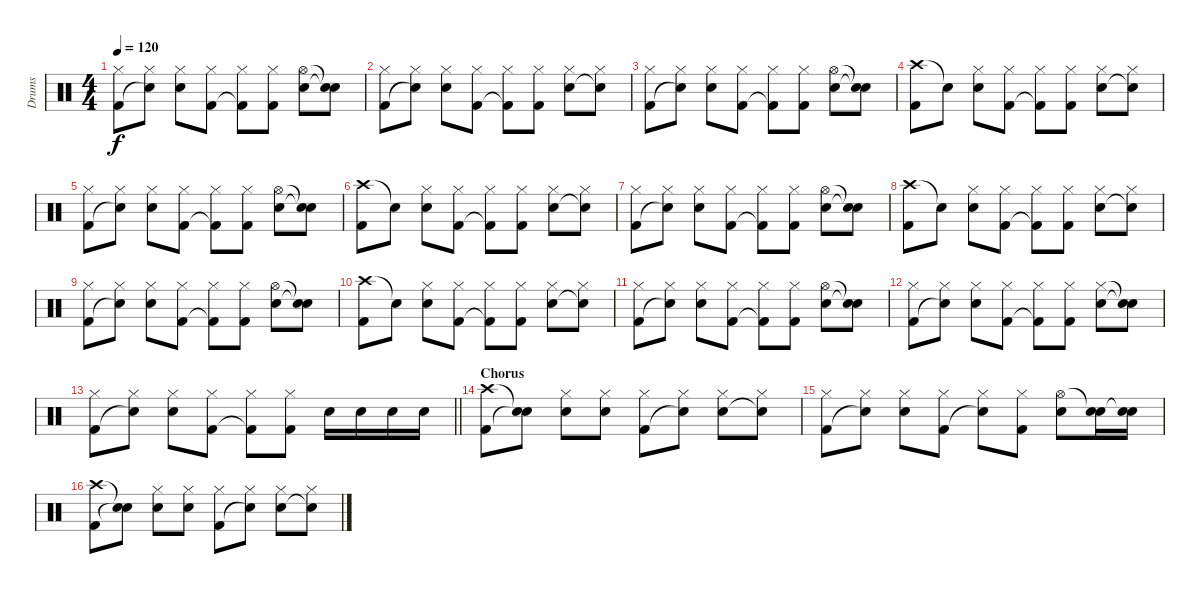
\track ("Drums" "Drums") {instrument percussion}
\staff {score}
\articulation defaults
\ts (4 4)
\tempo 120
\clef neutral
\ks c
("Hi-Hat (closed)" "Kick (hit) 2").8{dy f} ("Hi-Hat (closed)" "Snare (hit)"{t}).8 ("Hi-Hat (closed)" "Snare (hit) 2").8 ("Hi-Hat (closed)" "Kick (hit) 2").8 ("Hi-Hat (closed)" "Kick (hit) 2"{t}).8 ("Hi-Hat (closed)" "Kick (hit) 2").8 ("Hi-Hat (open)" "Snare (hit) 2").8 ("Snare (hit)"{t} "Snare (hit)"{t}).8 |
("Hi-Hat (closed)" "Kick (hit) 2").8 ("Hi-Hat (closed)" "Snare (hit)"{t}).8 ("Hi-Hat (closed)" "Snare (hit) 2").8 ("Hi-Hat (closed)" "Kick (hit) 2").8 ("Hi-Hat (closed)" "Kick (hit) 2"{t}).8 ("Hi-Hat (closed)" "Kick (hit) 2").8 ("Hi-Hat (closed)" "Snare (hit) 2").8 ("Hi-Hat (closed)" "Snare (hit)"{t}).8 |
("Hi-Hat (closed)" "Kick (hit) 2").8 ("Hi-Hat (closed)" "Snare (hit)"{t}).8 ("Hi-Hat (closed)" "Snare (hit) 2").8 ("Hi-Hat (closed)" "Kick (hit) 2").8 ("Hi-Hat (closed)" "Kick (hit) 2"{t}).8 ("Hi-Hat (closed)" "Kick (hit) 2").8 ("Hi-Hat (open)" "Snare (hit) 2").8 ("Snare (hit)"{t} "Snare (hit)"{t}).8 |
("Crash high (hit)" "Kick (hit) 2").8 "Snare (hit)"{t}.8 ("Hi-Hat (closed)" "Snare (hit) 2").8 ("Hi-Hat (closed)" "Kick (hit) 2").8 ("Hi-Hat (closed)" "Kick (hit) 2"{t}).8 ("Hi-Hat (closed)" "Kick (hit) 2").8 ("Hi-Hat (closed)" "Snare (hit) 2").8 ("Hi-Hat (closed)" "Snare (hit)"{t}).8 |
("Hi-Hat (closed)" "Kick (hit) 2").8 ("Hi-Hat (closed)" "Snare (hit)"{t}).8 ("Hi-Hat (closed)" "Snare (hit) 2").8 ("Hi-Hat (closed)" "Kick (hit) 2").8 ("Hi-Hat (closed)" "Kick (hit) 2"{t}).8 ("Hi-Hat (closed)" "Kick (hit) 2").8 ("Hi-Hat (open)" "Snare (hit) 2").8 ("Snare (hit)"{t} "Snare (hit)"{t}).8 |
("Crash high (hit)" "Kick (hit) 2").8 "Snare (hit)"{t}.8 ("Hi-Hat (closed)" "Snare (hit) 2").8 ("Hi-Hat (closed)" "Kick (hit) 2").8 ("Hi-Hat (closed)" "Kick (hit) 2"{t}).8 ("Hi-Hat (closed)" "Kick (hit) 2").8 ("Hi-Hat (closed)" "Snare (hit) 2").8 ("Hi-Hat (closed)" "Snare (hit)"{t}).8 |
("Hi-Hat (closed)" "Kick (hit) 2").8 ("Hi-Hat (closed)" "Snare (hit)"{t}).8 ("Hi-Hat (closed)" "Snare (hit) 2").8 ("Hi-Hat (closed)" "Kick (hit) 2").8 ("Hi-Hat (closed)" "Kick (hit) 2"{t}).8 ("Hi-Hat (closed)" "Kick (hit) 2").8 ("Hi-Hat (open)" "Snare (hit) 2").8 ("Snare (hit)"{t} "Snare (hit)"{t}).8 |
("Crash high (hit)" "Kick (hit) 2").8 "Snare (hit)"{t}.8 ("Hi-Hat (closed)" "Snare (hit) 2").8 ("Hi-Hat (closed)" "Kick (hit) 2").8 ("Hi-Hat (closed)" "Kick (hit) 2"{t}).8 ("Hi-Hat (closed)" "Kick (hit) 2").8 ("Hi-Hat (closed)" "Snare (hit) 2").8 ("Hi-Hat (closed)" "Snare (hit)"{t}).8 |
("Hi-Hat (closed)" "Kick (hit) 2").8 ("Hi-Hat (closed)" "Snare (hit)"{t}).8 ("Hi-Hat (closed)" "Snare (hit) 2").8 ("Hi-Hat (closed)" "Kick (hit) 2").8 ("Hi-Hat (closed)" "Kick (hit) 2"{t}).8 ("Hi-Hat (closed)" "Kick (hit) 2").8 ("Hi-Hat (open)" "Snare (hit) 2").8 ("Snare (hit)"{t} "Snare (hit)"{t}).8 |
("Crash high (hit)" "Kick (hit) 2").8 "Snare (hit)"{t}.8 ("Hi-Hat (closed)" "Snare (hit) 2").8 ("Hi-Hat (closed)" "Kick (hit) 2").8 ("Hi-Hat (closed)" "Kick (hit) 2"{t}).8 ("Hi-Hat (closed)" "Kick (hit) 2").8 ("Hi-Hat (closed)" "Snare (hit) 2").8 ("Hi-Hat (closed)" "Snare (hit)"{t}).8 |
("Hi-Hat (closed)" "Kick (hit) 2").8 ("Hi-Hat (closed)" "Snare (hit)"{t}).8 ("Hi-Hat (closed)" "Snare (hit) 2").8 ("Hi-Hat (closed)" "Kick (hit) 2").8 ("Hi-Hat (closed)" "Kick (hit) 2"{t}).8 ("Hi-Hat (closed)" "Kick (hit) 2").8 ("Hi-Hat (open)" "Snare (hit) 2").8 ("Snare (hit)"{t} "Snare (hit)"{t}).8 |
("Hi-Hat (closed)" "Kick (hit) 2").8 ("Hi-Hat (closed)" "Snare (hit)"{t}).8 ("Hi-Hat (closed)" "Snare (hit) 2").8 ("Hi-Hat (closed)" "Kick (hit) 2").8 ("Hi-Hat (closed)" "Kick (hit) 2"{t}).8 ("Hi-Hat (closed)" "Kick (hit) 2").8 ("Hi-Hat (closed)" "Snare (hit) 2").8 ("Snare (hit)"{t} "Snare (hit)"{t}).8 |
\barLineRight lightlight
("Hi-Hat (closed)" "Kick (hit) 2").8 ("Hi-Hat (closed)" "Snare (hit)"{t}).8 ("Hi-Hat (closed)" "Snare (hit) 2").8 ("Hi-Hat (closed)" "Kick (hit) 2").8 ("Hi-Hat (closed)" "Kick (hit) 2"{t}).8 ("Hi-Hat (closed)" "Kick (hit) 2").8 "Snare (hit) 2".16 "Snare (hit) 2".16 "Snare (hit) 2".16 "Snare (hit) 2".16 |
\section ("" "Chorus")
("Crash high (hit)" "Kick (hit) 2").8 ("Snare (hit)"{t} "Snare (hit)"{t}).8 ("Hi-Hat (closed)" "Snare (hit) 2").8 ("Hi-Hat (closed)" "Snare (hit) 2").8 ("Hi-Hat (closed)" "Kick (hit) 2").8 ("Hi-Hat (closed)" "Snare (hit)"{t}).8 ("Hi-Hat (closed)" "Snare (hit) 2").8 ("Hi-Hat (closed)" "Snare (hit)"{t}).8 |
("Hi-Hat (closed)" "Kick (hit) 2").8 ("Hi-Hat (closed)" "Snare (hit)"{t}).8 ("Hi-Hat (closed)" "Snare (hit) 2").8 ("Hi-Hat (closed)" "Kick (hit) 2").8 ("Hi-Hat (closed)" "Snare (hit)"{t}).8 ("Hi-Hat (closed)" "Kick (hit) 2").8 ("Hi-Hat (open)" "Snare (hit) 2").8 ("Snare (hit)"{t} "Snare (hit) 2").16 ("Snare (hit)"{t} "Snare (hit) 2").16 |
("Crash high (hit)" "Kick (hit) 2").8 ("Snare (hit)"{t} "Snare (hit)"{t}).8 ("Hi-Hat (closed)" "Snare (hit) 2").8 ("Hi-Hat (closed)" "Snare (hit) 2").8 ("Hi-Hat (closed)" "Kick (hit) 2").8 ("Hi-Hat (closed)" "Snare (hit)"{t}).8 ("Hi-Hat (closed)" "Snare (hit) 2").8 ("Hi-Hat (closed)" "Snare (hit)"{t}).8
